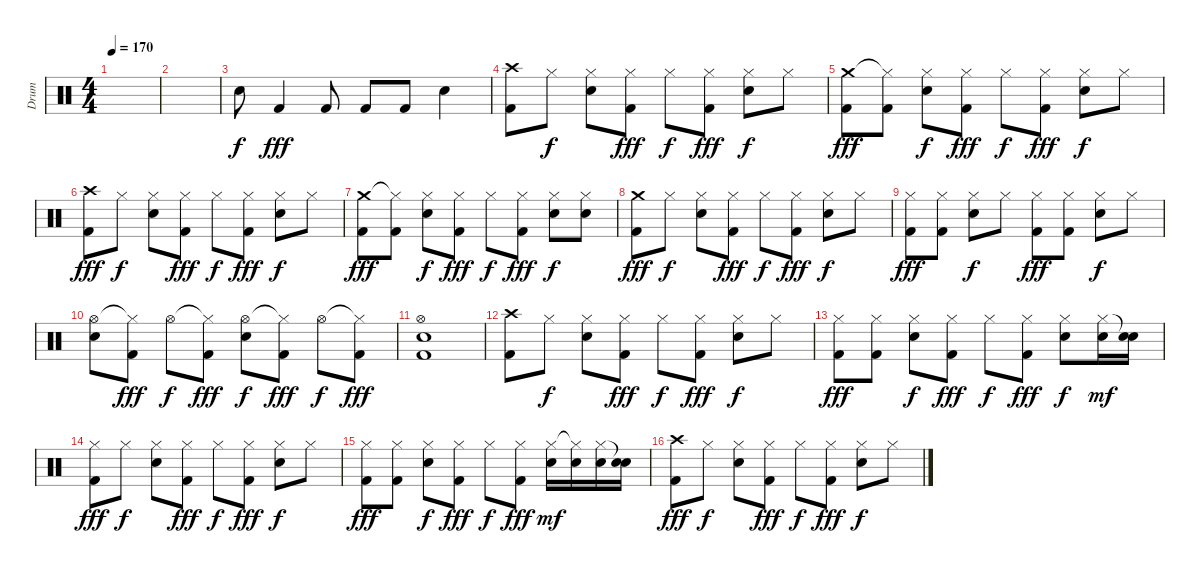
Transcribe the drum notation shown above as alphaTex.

\track ("Drum" "Drum") {instrument percussion}
\staff {score}
\articulation defaults
\ts (4 4)
\tempo 170
\clef neutral
\ks c
|
|
"Snare (hit) 2".8{dy f} "Kick (hit) 2".4{dy fff} "Kick (hit) 2".8 "Kick (hit) 2".8 "Kick (hit) 2".8 "Snare (hit) 2".4 |
("Crash high (hit)" "Kick (hit) 2").8 "Hi-Hat (closed)".8{dy f} ("Hi-Hat (closed)" "Snare (hit) 2").8 ("Hi-Hat (closed)" "Kick (hit) 2").8{dy fff} "Hi-Hat (closed)".8{dy f} ("Hi-Hat (closed)" "Kick (hit) 2").8{dy fff} ("Hi-Hat (closed)" "Snare (hit) 2").8{dy f} "Hi-Hat (closed)".8 |
("Crash medium (hit)" "Kick (hit) 2").8{dy fff} ("Hi-Hat (closed)"{t} "Kick (hit) 2").8 ("Hi-Hat (closed)" "Snare (hit) 2").8{dy f} ("Hi-Hat (closed)" "Kick (hit) 2").8{dy fff} "Hi-Hat (closed)".8{dy f} ("Hi-Hat (closed)" "Kick (hit) 2").8{dy fff} ("Hi-Hat (closed)" "Snare (hit) 2").8{dy f} "Hi-Hat (closed)".8 |
("Crash high (hit)" "Kick (hit) 2").8{dy fff} "Hi-Hat (closed)".8{dy f} ("Hi-Hat (closed)" "Snare (hit) 2").8 ("Hi-Hat (closed)" "Kick (hit) 2").8{dy fff} "Hi-Hat (closed)".8{dy f} ("Hi-Hat (closed)" "Kick (hit) 2").8{dy fff} ("Hi-Hat (closed)" "Snare (hit) 2").8{dy f} "Hi-Hat (closed)".8 |
("Crash medium (hit)" "Kick (hit) 2").8{dy fff} ("Hi-Hat (closed)"{t} "Kick (hit) 2").8 ("Hi-Hat (closed)" "Snare (hit) 2").8{dy f} ("Hi-Hat (closed)" "Kick (hit) 2").8{dy fff} "Hi-Hat (closed)".8{dy f} ("Hi-Hat (closed)" "Kick (hit) 2").8{dy fff} ("Hi-Hat (closed)" "Snare (hit) 2").8{dy f} ("Hi-Hat (closed)" "Snare (hit) 2").8 |
("Crash medium (hit)" "Kick (hit) 2").8{dy fff} "Hi-Hat (closed)".8{dy f} ("Hi-Hat (closed)" "Snare (hit) 2").8 ("Hi-Hat (closed)" "Kick (hit) 2").8{dy fff} "Hi-Hat (closed)".8{dy f} ("Hi-Hat (closed)" "Kick (hit) 2").8{dy fff} ("Hi-Hat (closed)" "Snare (hit) 2").8{dy f} "Hi-Hat (closed)".8 |
("Hi-Hat (closed)" "Kick (hit) 2").8{dy fff} ("Hi-Hat (closed)" "Kick (hit) 2").8 ("Hi-Hat (closed)" "Snare (hit) 2").8{dy f} "Hi-Hat (closed)".8 ("Hi-Hat (closed)" "Kick (hit) 2").8{dy fff} ("Hi-Hat (closed)" "Kick (hit) 2").8 ("Hi-Hat (closed)" "Snare (hit) 2").8{dy f} "Hi-Hat (closed)".8 |
("Hi-Hat (open)" "Snare (hit) 2").8 ("Hi-Hat (closed)"{t} "Kick (hit) 2").8{dy fff} "Hi-Hat (open)".8{dy f} ("Hi-Hat (closed)"{t} "Kick (hit) 2").8{dy fff} ("Hi-Hat (open)" "Snare (hit) 2").8{dy f} ("Hi-Hat (closed)"{t} "Kick (hit) 2").8{dy fff} "Hi-Hat (open)".8{dy f} ("Hi-Hat (closed)"{t} "Kick (hit) 2").8{dy fff} |
("Hi-Hat (open)" "Snare (hit) 2" "Kick (hit) 2").1 |
("Crash high (hit)" "Kick (hit) 2").8 "Hi-Hat (closed)".8{dy f} ("Hi-Hat (closed)" "Snare (hit) 2").8 ("Hi-Hat (closed)" "Kick (hit) 2").8{dy fff} "Hi-Hat (closed)".8{dy f} ("Hi-Hat (closed)" "Kick (hit) 2").8{dy fff} ("Hi-Hat (closed)" "Snare (hit) 2").8{dy f} "Hi-Hat (closed)".8 |
("Hi-Hat (closed)" "Kick (hit) 2").8{dy fff} ("Hi-Hat (closed)" "Kick (hit) 2").8 ("Hi-Hat (closed)" "Snare (hit) 2").8{dy f} ("Hi-Hat (closed)" "Kick (hit) 2").8{dy fff} "Hi-Hat (closed)".8{dy f} ("Hi-Hat (closed)" "Kick (hit) 2").8{dy fff} ("Hi-Hat (closed)" "Snare (hit) 2").8{dy f} ("Hi-Hat (closed)" "Snare (hit) 2").16{dy mf} ("Snare (hit)"{t} "Snare (hit) 2").16 |
("Hi-Hat (closed)" "Kick (hit) 2").8{dy fff} "Hi-Hat (closed)".8{dy f} ("Hi-Hat (closed)" "Snare (hit) 2").8 ("Hi-Hat (closed)" "Kick (hit) 2").8{dy fff} "Hi-Hat (closed)".8{dy f} ("Hi-Hat (closed)" "Kick (hit) 2").8{dy fff} ("Hi-Hat (closed)" "Snare (hit) 2").8{dy f} "Hi-Hat (closed)".8 |
("Hi-Hat (closed)" "Kick (hit) 2").8{dy fff} ("Hi-Hat (closed)" "Kick (hit) 2").8 ("Hi-Hat (closed)" "Snare (hit) 2").8{dy f} ("Hi-Hat (closed)" "Kick (hit) 2").8{dy fff} "Hi-Hat (closed)".8{dy f} ("Hi-Hat (closed)" "Kick (hit) 2").8{dy fff} ("Hi-Hat (closed)" "Snare (hit) 2").16{dy mf} ("Hi-Hat (closed)"{t} "Snare (hit) 2").16 ("Hi-Hat (closed)" "Snare (hit) 2").16 ("Snare (hit)"{t} "Snare (hit) 2").16 |
("Crash high (hit)" "Kick (hit) 2").8{dy fff} "Hi-Hat (closed)".8{dy f} ("Hi-Hat (closed)" "Snare (hit) 2").8 ("Hi-Hat (closed)" "Kick (hit) 2").8{dy fff} "Hi-Hat (closed)".8{dy f} ("Hi-Hat (closed)" "Kick (hit) 2").8{dy fff} ("Hi-Hat (closed)" "Snare (hit) 2").8{dy f} "Hi-Hat (closed)".8
